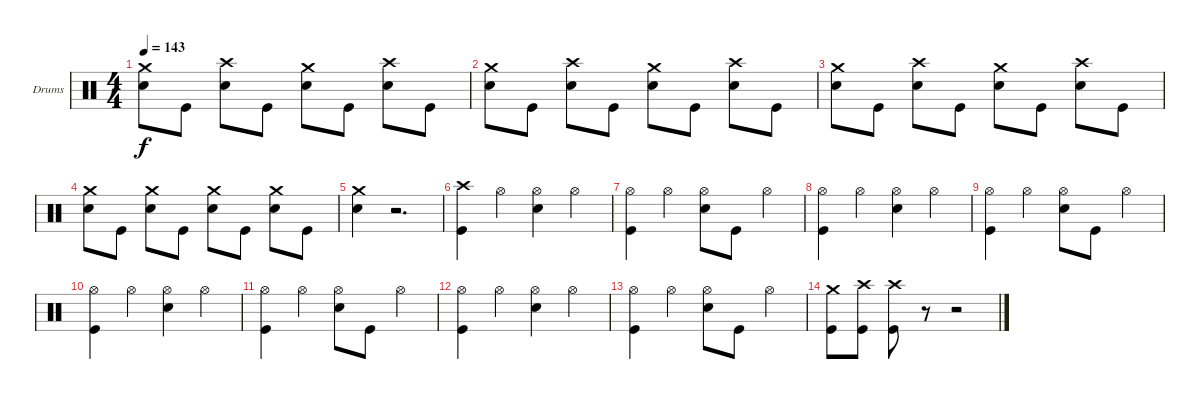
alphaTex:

\bracketExtendMode groupsimilarinstruments
\firstSystemTrackNameOrientation horizontal
\otherSystemsTrackNameOrientation horizontal
\track ("Drumkit" "Drums") {instrument percussion}
\staff {score}
\articulation defaults
\ts (4 4)
\tempo 143
\clef neutral
\ks c
("Crash medium (hit)" "Snare (hit) 2").8{dy f} "Kick (hit)".8 ("Crash high (hit)" "Snare (hit) 2").8 "Kick (hit)".8 ("Crash medium (hit)" "Snare (hit) 2").8 "Kick (hit)".8 ("Crash high (hit)" "Snare (hit) 2").8 "Kick (hit)".8 |
("Crash medium (hit)" "Snare (hit) 2").8 "Kick (hit)".8 ("Crash high (hit)" "Snare (hit) 2").8 "Kick (hit)".8 ("Crash medium (hit)" "Snare (hit) 2").8 "Kick (hit)".8 ("Crash high (hit)" "Snare (hit) 2").8 "Kick (hit)".8 |
("Crash medium (hit)" "Snare (hit) 2").8 "Kick (hit)".8 ("Crash high (hit)" "Snare (hit) 2").8 "Kick (hit)".8 ("Crash medium (hit)" "Snare (hit) 2").8 "Kick (hit)".8 ("Crash high (hit)" "Snare (hit) 2").8 "Kick (hit)".8 |
("Crash medium (hit)" "Snare (hit) 2").8 "Kick (hit)".8 ("Crash medium (hit)" "Snare (hit) 2").8 "Kick (hit)".8 ("Crash medium (hit)" "Snare (hit) 2").8 "Kick (hit)".8 ("Crash medium (hit)" "Snare (hit) 2").8 "Kick (hit)".8 |
("Crash medium (hit)" "Snare (hit) 2").4 r.2{d} |
("Crash high (hit)" "Kick (hit)").4 "Hi-Hat (open)".4 ("Hi-Hat (open)" "Snare (hit) 2").4 "Hi-Hat (open)".4 |
("Hi-Hat (open)" "Kick (hit)").4 "Hi-Hat (open)".4 ("Hi-Hat (open)" "Snare (hit) 2").8 "Kick (hit)".8 "Hi-Hat (open)".4 |
("Hi-Hat (open)" "Kick (hit)").4 "Hi-Hat (open)".4 ("Hi-Hat (open)" "Snare (hit) 2").4 "Hi-Hat (open)".4 |
("Hi-Hat (open)" "Kick (hit)").4 "Hi-Hat (open)".4 ("Hi-Hat (open)" "Snare (hit) 2").8 "Kick (hit)".8 "Hi-Hat (open)".4 |
("Hi-Hat (open)" "Kick (hit)").4 "Hi-Hat (open)".4 ("Hi-Hat (open)" "Snare (hit) 2").4 "Hi-Hat (open)".4 |
("Hi-Hat (open)" "Kick (hit)").4 "Hi-Hat (open)".4 ("Hi-Hat (open)" "Snare (hit) 2").8 "Kick (hit)".8 "Hi-Hat (open)".4 |
("Hi-Hat (open)" "Kick (hit)").4 "Hi-Hat (open)".4 ("Hi-Hat (open)" "Snare (hit) 2").4 "Hi-Hat (open)".4 |
("Hi-Hat (open)" "Kick (hit)").4 "Hi-Hat (open)".4 ("Hi-Hat (open)" "Snare (hit) 2").8 "Kick (hit)".8 "Hi-Hat (open)".4 |
("Crash medium (hit)" "Kick (hit)").8 ("Crash high (hit)" "Kick (hit)").8 ("Crash high (hit)" "Kick (hit)").8 r.8 r.2
